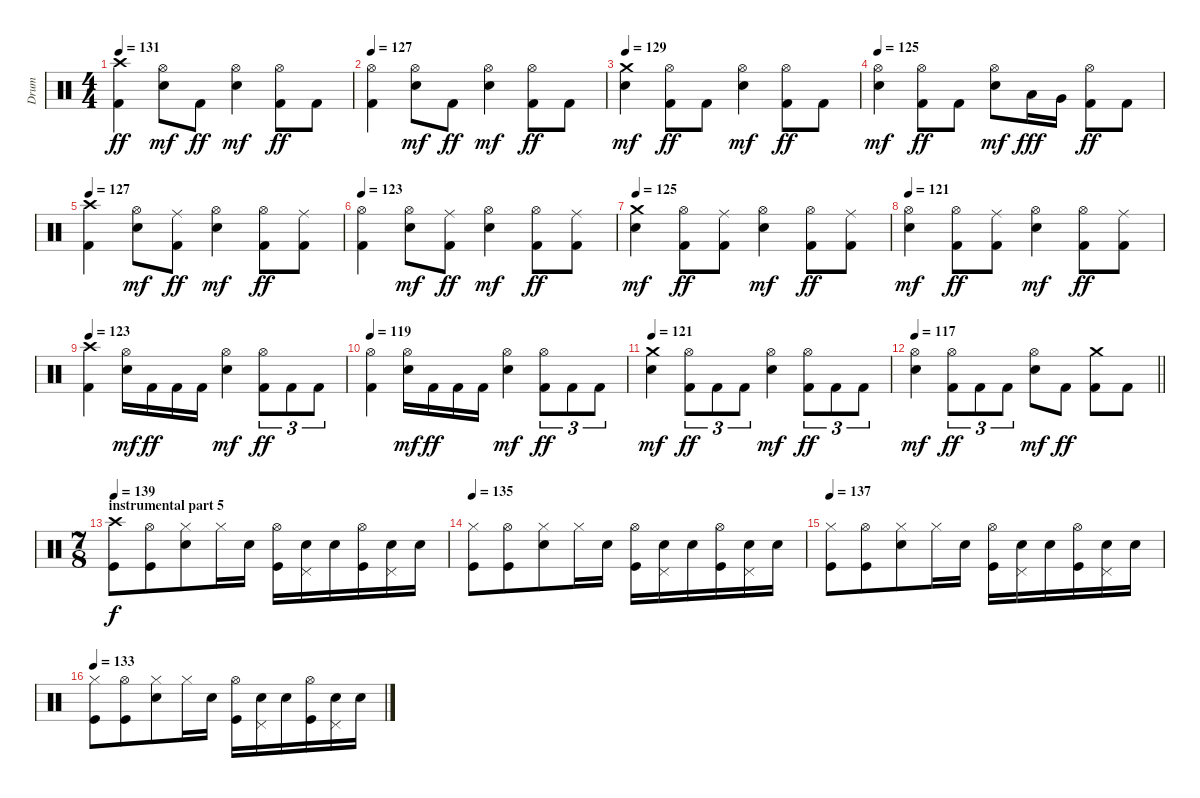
\track ("Drum" "Drum") {instrument percussion}
\staff {score}
\articulation defaults
\ts (4 4)
\tempo 131
\clef neutral
\ks c
("Crash high (hit)" "Kick (hit) 2").4{dy ff} ("Hi-Hat (open)" "Electric Snare (hit)").8{dy mf} "Kick (hit) 2".8{dy ff} ("Hi-Hat (open)" "Electric Snare (hit)").4{dy mf} ("Hi-Hat (open)" "Kick (hit) 2").8{dy ff} "Kick (hit) 2".8 |
\tempo 127
("Hi-Hat (open)" "Kick (hit) 2").4 ("Hi-Hat (open)" "Electric Snare (hit)").8{dy mf} "Kick (hit) 2".8{dy ff} ("Hi-Hat (open)" "Electric Snare (hit)").4{dy mf} ("Hi-Hat (open)" "Kick (hit) 2").8{dy ff} "Kick (hit) 2".8 |
\tempo 129
("Crash medium (hit)" "Electric Snare (hit)").4{dy mf} ("Hi-Hat (open)" "Kick (hit) 2").8{dy ff} "Kick (hit) 2".8 ("Hi-Hat (open)" "Electric Snare (hit)").4{dy mf} ("Hi-Hat (open)" "Kick (hit) 2").8{dy ff} "Kick (hit) 2".8 |
\tempo 125
("Hi-Hat (open)" "Electric Snare (hit)").4{dy mf} ("Hi-Hat (open)" "Kick (hit) 2").8{dy ff} "Kick (hit) 2".8 ("Hi-Hat (open)" "Electric Snare (hit)").8{dy mf} "Low Tom (hit)".16{dy fff} "Very Low Tom (hit)".16 ("Hi-Hat (open)" "Kick (hit) 2").8{dy ff} "Kick (hit) 2".8 |
\tempo 127
("Crash high (hit)" "Kick (hit) 2").4 ("Hi-Hat (open)" "Electric Snare (hit)").8{dy mf} ("Ride (middle)" "Kick (hit) 2").8{dy ff} ("Hi-Hat (open)" "Electric Snare (hit)").4{dy mf} ("Hi-Hat (open)" "Kick (hit) 2").8{dy ff} ("Ride (middle)" "Kick (hit) 2").8 |
\tempo 123
("Hi-Hat (open)" "Kick (hit) 2").4 ("Hi-Hat (open)" "Electric Snare (hit)").8{dy mf} ("Ride (middle)" "Kick (hit) 2").8{dy ff} ("Hi-Hat (open)" "Electric Snare (hit)").4{dy mf} ("Hi-Hat (open)" "Kick (hit) 2").8{dy ff} ("Ride (middle)" "Kick (hit) 2").8 |
\tempo 125
("Crash medium (hit)" "Electric Snare (hit)").4{dy mf} ("Hi-Hat (open)" "Kick (hit) 2").8{dy ff} ("Ride (middle)" "Kick (hit) 2").8 ("Hi-Hat (open)" "Electric Snare (hit)").4{dy mf} ("Hi-Hat (open)" "Kick (hit) 2").8{dy ff} ("Ride (middle)" "Kick (hit) 2").8 |
\tempo 121
("Hi-Hat (open)" "Electric Snare (hit)").4{dy mf} ("Hi-Hat (open)" "Kick (hit) 2").8{dy ff} ("Ride (middle)" "Kick (hit) 2").8 ("Hi-Hat (open)" "Electric Snare (hit)").4{dy mf} ("Hi-Hat (open)" "Kick (hit) 2").8{dy ff} ("Ride (middle)" "Kick (hit) 2").8 |
\tempo 123
("Crash high (hit)" "Kick (hit) 2").4 ("Hi-Hat (open)" "Electric Snare (hit)").16{dy mf} "Kick (hit) 2".16{dy ff} "Kick (hit) 2".16 "Kick (hit) 2".16 ("Hi-Hat (open)" "Electric Snare (hit)").4{dy mf} ("Hi-Hat (open)" "Kick (hit) 2").8{tu (3 2) dy ff} "Kick (hit) 2".8{tu (3 2)} "Kick (hit) 2".8{tu (3 2)} |
\tempo 119
("Hi-Hat (open)" "Kick (hit) 2").4 ("Hi-Hat (open)" "Electric Snare (hit)").16{dy mf} "Kick (hit) 2".16{dy ff} "Kick (hit) 2".16 "Kick (hit) 2".16 ("Hi-Hat (open)" "Electric Snare (hit)").4{dy mf} ("Hi-Hat (open)" "Kick (hit) 2").8{tu (3 2) dy ff} "Kick (hit) 2".8{tu (3 2)} "Kick (hit) 2".8{tu (3 2)} |
\tempo 121
("Crash medium (hit)" "Electric Snare (hit)").4{dy mf} ("Hi-Hat (open)" "Kick (hit) 2").8{tu (3 2) dy ff} "Kick (hit) 2".8{tu (3 2)} "Kick (hit) 2".8{tu (3 2)} ("Hi-Hat (open)" "Electric Snare (hit)").4{dy mf} ("Hi-Hat (open)" "Kick (hit) 2").8{tu (3 2) dy ff} "Kick (hit) 2".8{tu (3 2)} "Kick (hit) 2".8{tu (3 2)} |
\tempo 117
\barLineRight lightlight
("Hi-Hat (open)" "Electric Snare (hit)").4{dy mf} ("Hi-Hat (open)" "Kick (hit) 2").8{tu (3 2) dy ff} "Kick (hit) 2".8{tu (3 2)} "Kick (hit) 2".8{tu (3 2)} ("Hi-Hat (open)" "Electric Snare (hit)").8{dy mf} "Kick (hit) 2".8{dy ff} ("Crash medium (hit)" "Kick (hit) 2").8 "Kick (hit) 2".8 |
\ts (7 8)
\section ("" "instrumental part 5")
\tempo 139
("Crash high (hit)" "Kick (hit)").8{dy f} ("Hi-Hat (open)" "Kick (hit)").8 ("Hi-Hat (closed)" "Snare (hit) 2").8 "Hi-Hat (closed)".16 "Snare (hit) 2".16 ("Hi-Hat (open)" "Kick (hit)").16 ("Pedal Hi-Hat (hit)" "Snare (hit) 2").16 "Snare (hit) 2".16 ("Hi-Hat (open)" "Kick (hit)").16 ("Pedal Hi-Hat (hit)" "Snare (hit) 2").16 "Snare (hit) 2".16 |
\tempo 135
("Hi-Hat (closed)" "Kick (hit)").8 ("Hi-Hat (open)" "Kick (hit)").8 ("Hi-Hat (closed)" "Snare (hit) 2").8 "Hi-Hat (closed)".16 "Snare (hit) 2".16 ("Hi-Hat (open)" "Kick (hit)").16 ("Pedal Hi-Hat (hit)" "Snare (hit) 2").16 "Snare (hit) 2".16 ("Hi-Hat (open)" "Kick (hit)").16 ("Pedal Hi-Hat (hit)" "Snare (hit) 2").16 "Snare (hit) 2".16 |
\tempo 137
("Hi-Hat (closed)" "Kick (hit)").8 ("Hi-Hat (open)" "Kick (hit)").8 ("Hi-Hat (closed)" "Snare (hit) 2").8 "Hi-Hat (closed)".16 "Snare (hit) 2".16 ("Hi-Hat (open)" "Kick (hit)").16 ("Pedal Hi-Hat (hit)" "Snare (hit) 2").16 "Snare (hit) 2".16 ("Hi-Hat (open)" "Kick (hit)").16 ("Pedal Hi-Hat (hit)" "Snare (hit) 2").16 "Snare (hit) 2".16 |
\tempo 133
("Hi-Hat (closed)" "Kick (hit)").8 ("Hi-Hat (open)" "Kick (hit)").8 ("Hi-Hat (closed)" "Snare (hit) 2").8 "Hi-Hat (closed)".16 "Snare (hit) 2".16 ("Hi-Hat (open)" "Kick (hit)").16 ("Pedal Hi-Hat (hit)" "Snare (hit) 2").16 "Snare (hit) 2".16 ("Hi-Hat (open)" "Kick (hit)").16 ("Pedal Hi-Hat (hit)" "Snare (hit) 2").16 "Snare (hit) 2".16
